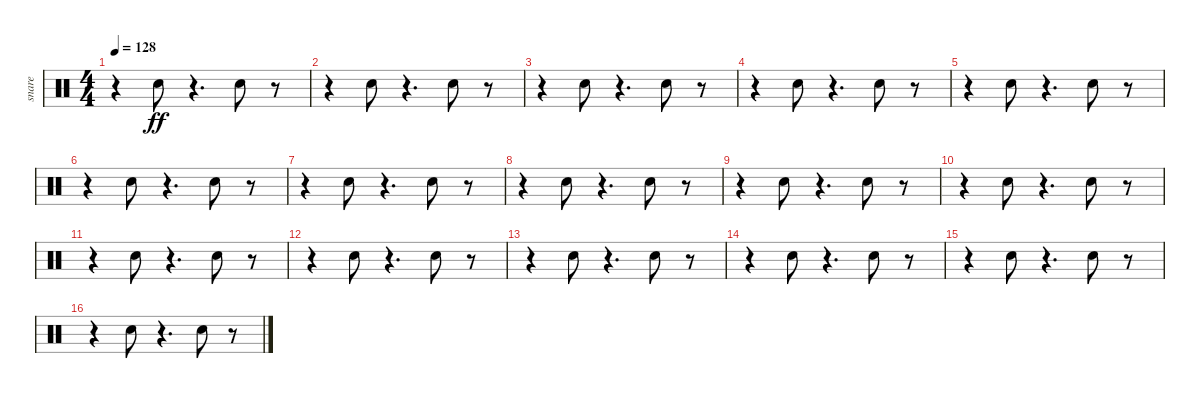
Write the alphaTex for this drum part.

\track ("snare" "snare") {instrument percussion}
\staff {score}
\articulation defaults
\ts (4 4)
\tempo 128
\clef neutral
\ks c
r.4{dy ff} "Electric Snare (hit)".8 r.4{d} "Electric Snare (hit)".8 r.8 |
r.4 "Electric Snare (hit)".8 r.4{d} "Electric Snare (hit)".8 r.8 |
r.4 "Electric Snare (hit)".8 r.4{d} "Electric Snare (hit)".8 r.8 |
r.4 "Electric Snare (hit)".8 r.4{d} "Electric Snare (hit)".8 r.8 |
r.4 "Electric Snare (hit)".8 r.4{d} "Electric Snare (hit)".8 r.8 |
r.4 "Electric Snare (hit)".8 r.4{d} "Electric Snare (hit)".8 r.8 |
r.4 "Electric Snare (hit)".8 r.4{d} "Electric Snare (hit)".8 r.8 |
r.4 "Electric Snare (hit)".8 r.4{d} "Electric Snare (hit)".8 r.8 |
r.4 "Electric Snare (hit)".8 r.4{d} "Electric Snare (hit)".8 r.8 |
r.4 "Electric Snare (hit)".8 r.4{d} "Electric Snare (hit)".8 r.8 |
r.4 "Electric Snare (hit)".8 r.4{d} "Electric Snare (hit)".8 r.8 |
r.4 "Electric Snare (hit)".8 r.4{d} "Electric Snare (hit)".8 r.8 |
r.4 "Electric Snare (hit)".8 r.4{d} "Electric Snare (hit)".8 r.8 |
r.4 "Electric Snare (hit)".8 r.4{d} "Electric Snare (hit)".8 r.8 |
r.4 "Electric Snare (hit)".8 r.4{d} "Electric Snare (hit)".8 r.8 |
r.4 "Electric Snare (hit)".8 r.4{d} "Electric Snare (hit)".8 r.8
